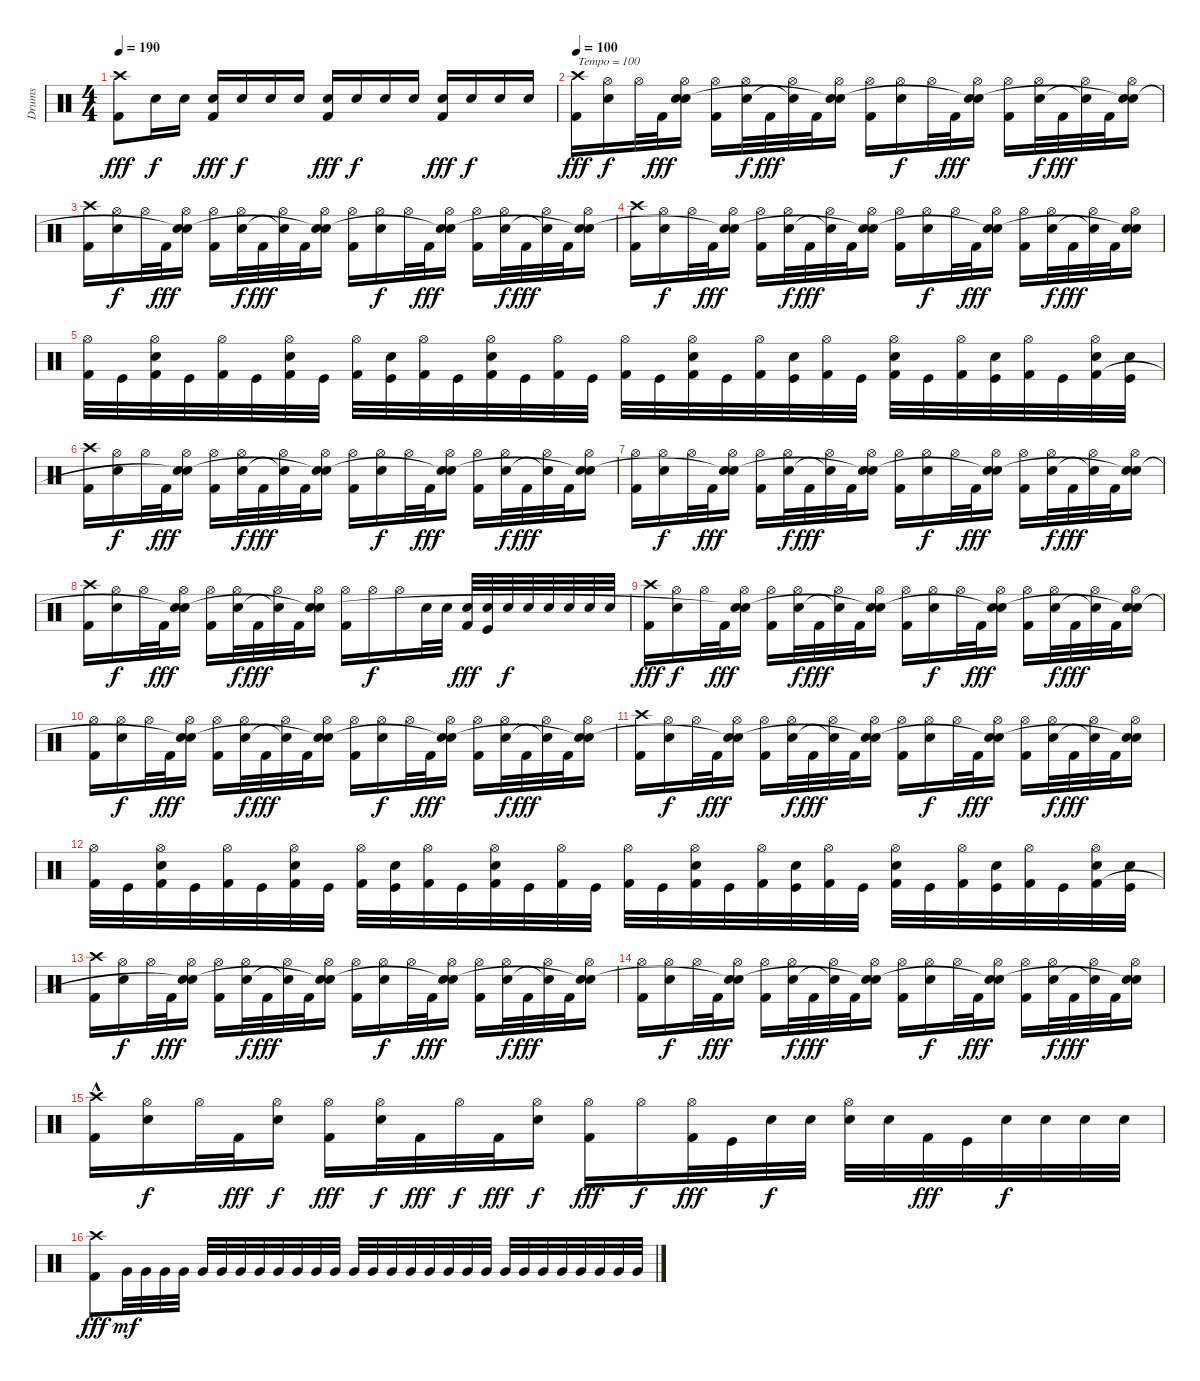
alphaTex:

\track ("Drums" "Drums") {instrument percussion}
\staff {score}
\articulation defaults
\ts (4 4)
\tempo 190
\clef neutral
\ks c
("Crash high (hit)" "Kick (hit) 2").8{dy fff} "Electric Snare (hit)".16{dy f} "Electric Snare (hit)".16 ("Electric Snare (hit)" "Kick (hit) 2").16{dy fff} "Electric Snare (hit)".16{dy f} "Electric Snare (hit)".16 "Electric Snare (hit)".16 ("Electric Snare (hit)" "Kick (hit) 2").16{dy fff} "Electric Snare (hit)".16{dy f} "Electric Snare (hit)".16 "Electric Snare (hit)".16 ("Electric Snare (hit)" "Kick (hit) 2").16{dy fff} "Electric Snare (hit)".16{dy f} "Electric Snare (hit)".16 "Electric Snare (hit)".16 |
\tempo 100
("Crash high (hit)" "Kick (hit) 2").16{txt "Tempo = 100" dy fff} ("Hi-Hat (open)" "Electric Snare (hit)").16{dy f} "Hi-Hat (open)".32 "Kick (hit) 2".32{dy fff} ("Hi-Hat (open)" "Electric Snare (hit)" "Snare (hit)"{t}).16 ("Hi-Hat (open)" "Kick (hit) 2").16 ("Hi-Hat (open)" "Electric Snare (hit)").32{dy f} "Kick (hit) 2".32{dy fff} ("Hi-Hat (open)" "Snare (hit)"{t}).32 "Kick (hit) 2".32 ("Hi-Hat (open)" "Electric Snare (hit)" "Snare (hit)"{t}).16 ("Hi-Hat (open)" "Kick (hit) 2").16 ("Hi-Hat (open)" "Electric Snare (hit)").16{dy f} "Hi-Hat (open)".32 "Kick (hit) 2".32{dy fff} ("Hi-Hat (open)" "Electric Snare (hit)" "Snare (hit)"{t}).16 ("Hi-Hat (open)" "Kick (hit) 2").16 ("Hi-Hat (open)" "Electric Snare (hit)").32{dy f} "Kick (hit) 2".32{dy fff} ("Hi-Hat (open)" "Snare (hit)"{t}).32 "Kick (hit) 2".32 ("Hi-Hat (open)" "Electric Snare (hit)" "Snare (hit)"{t}).16 |
("Crash high (hit)" "Kick (hit) 2").16 ("Hi-Hat (open)" "Electric Snare (hit)").16{dy f} "Hi-Hat (open)".32 "Kick (hit) 2".32{dy fff} ("Hi-Hat (open)" "Electric Snare (hit)" "Snare (hit)"{t}).16 ("Hi-Hat (open)" "Kick (hit) 2").16 ("Hi-Hat (open)" "Electric Snare (hit)").32{dy f} "Kick (hit) 2".32{dy fff} ("Hi-Hat (open)" "Snare (hit)"{t}).32 "Kick (hit) 2".32 ("Hi-Hat (open)" "Electric Snare (hit)" "Snare (hit)"{t}).16 ("Hi-Hat (open)" "Kick (hit) 2").16 ("Hi-Hat (open)" "Electric Snare (hit)").16{dy f} "Hi-Hat (open)".32 "Kick (hit) 2".32{dy fff} ("Hi-Hat (open)" "Electric Snare (hit)" "Snare (hit)"{t}).16 ("Hi-Hat (open)" "Kick (hit) 2").16 ("Hi-Hat (open)" "Electric Snare (hit)").32{dy f} "Kick (hit) 2".32{dy fff} ("Hi-Hat (open)" "Snare (hit)"{t}).32 "Kick (hit) 2".32 ("Hi-Hat (open)" "Electric Snare (hit)" "Snare (hit)"{t}).16 |
("Crash high (hit)" "Kick (hit) 2").16 ("Hi-Hat (open)" "Electric Snare (hit)").16{dy f} "Hi-Hat (open)".32 "Kick (hit) 2".32{dy fff} ("Hi-Hat (open)" "Electric Snare (hit)" "Snare (hit)"{t}).16 ("Hi-Hat (open)" "Kick (hit) 2").16 ("Hi-Hat (open)" "Electric Snare (hit)").32{dy f} "Kick (hit) 2".32{dy fff} ("Hi-Hat (open)" "Snare (hit)"{t}).32 "Kick (hit) 2".32 ("Hi-Hat (open)" "Electric Snare (hit)" "Snare (hit)"{t}).16 ("Hi-Hat (open)" "Kick (hit) 2").16 ("Hi-Hat (open)" "Electric Snare (hit)").16{dy f} "Hi-Hat (open)".32 "Kick (hit) 2".32{dy fff} ("Hi-Hat (open)" "Electric Snare (hit)" "Snare (hit)"{t}).16 ("Hi-Hat (open)" "Kick (hit) 2").16 ("Hi-Hat (open)" "Electric Snare (hit)").32{dy f} "Kick (hit) 2".32{dy fff} ("Hi-Hat (open)" "Snare (hit)"{t}).32 "Kick (hit) 2".32 ("Hi-Hat (open)" "Electric Snare (hit)" "Snare (hit)"{t}).16 |
("Hi-Hat (open)" "Kick (hit) 2").32 "Kick (hit)".32 ("Hi-Hat (open)" "Electric Snare (hit)" "Kick (hit) 2").32 "Kick (hit)".32 ("Hi-Hat (open)" "Kick (hit) 2").32 "Kick (hit)".32 ("Hi-Hat (open)" "Electric Snare (hit)" "Kick (hit) 2").32 "Kick (hit)".32 ("Hi-Hat (open)" "Kick (hit) 2").32 ("Electric Snare (hit)" "Kick (hit)").32 ("Hi-Hat (open)" "Kick (hit) 2").32 "Kick (hit)".32 ("Hi-Hat (open)" "Electric Snare (hit)" "Kick (hit) 2").32 "Kick (hit)".32 ("Hi-Hat (open)" "Kick (hit) 2").32 "Kick (hit)".32 ("Hi-Hat (open)" "Kick (hit) 2").32 "Kick (hit)".32 ("Hi-Hat (open)" "Electric Snare (hit)" "Kick (hit) 2").32 "Kick (hit)".32 ("Hi-Hat (open)" "Kick (hit) 2").32 ("Electric Snare (hit)" "Kick (hit)").32 ("Hi-Hat (open)" "Kick (hit) 2").32 "Kick (hit)".32 ("Hi-Hat (open)" "Electric Snare (hit)" "Kick (hit) 2").32 "Kick (hit)".32 ("Hi-Hat (open)" "Kick (hit) 2").32 ("Electric Snare (hit)" "Kick (hit)").32 ("Hi-Hat (open)" "Kick (hit) 2").32 "Kick (hit)".32 ("Hi-Hat (open)" "Electric Snare (hit)" "Kick (hit) 2").32 ("Electric Snare (hit)" "Kick (hit)").32 |
("Crash high (hit)" "Kick (hit) 2").16 ("Hi-Hat (open)" "Electric Snare (hit)").16{dy f} "Hi-Hat (open)".32 "Kick (hit) 2".32{dy fff} ("Hi-Hat (open)" "Electric Snare (hit)" "Snare (hit)"{t}).16 ("Hi-Hat (open)" "Kick (hit) 2").16 ("Hi-Hat (open)" "Electric Snare (hit)").32{dy f} "Kick (hit) 2".32{dy fff} ("Hi-Hat (open)" "Snare (hit)"{t}).32 "Kick (hit) 2".32 ("Hi-Hat (open)" "Electric Snare (hit)" "Snare (hit)"{t}).16 ("Hi-Hat (open)" "Kick (hit) 2").16 ("Hi-Hat (open)" "Electric Snare (hit)").16{dy f} "Hi-Hat (open)".32 "Kick (hit) 2".32{dy fff} ("Hi-Hat (open)" "Electric Snare (hit)" "Snare (hit)"{t}).16 ("Hi-Hat (open)" "Kick (hit) 2").16 ("Hi-Hat (open)" "Electric Snare (hit)").32{dy f} "Kick (hit) 2".32{dy fff} ("Hi-Hat (open)" "Snare (hit)"{t}).32 "Kick (hit) 2".32 ("Hi-Hat (open)" "Electric Snare (hit)" "Snare (hit)"{t}).16 |
("Hi-Hat (open)" "Kick (hit) 2").16 ("Hi-Hat (open)" "Electric Snare (hit)").16{dy f} "Hi-Hat (open)".32 "Kick (hit) 2".32{dy fff} ("Hi-Hat (open)" "Electric Snare (hit)" "Snare (hit)"{t}).16 ("Hi-Hat (open)" "Kick (hit) 2").16 ("Hi-Hat (open)" "Electric Snare (hit)").32{dy f} "Kick (hit) 2".32{dy fff} ("Hi-Hat (open)" "Snare (hit)"{t}).32 "Kick (hit) 2".32 ("Hi-Hat (open)" "Electric Snare (hit)" "Snare (hit)"{t}).16 ("Hi-Hat (open)" "Kick (hit) 2").16 ("Hi-Hat (open)" "Electric Snare (hit)").16{dy f} "Hi-Hat (open)".32 "Kick (hit) 2".32{dy fff} ("Hi-Hat (open)" "Electric Snare (hit)" "Snare (hit)"{t}).16 ("Hi-Hat (open)" "Kick (hit) 2").16 ("Hi-Hat (open)" "Electric Snare (hit)").32{dy f} "Kick (hit) 2".32{dy fff} ("Hi-Hat (open)" "Snare (hit)"{t}).32 "Kick (hit) 2".32 ("Hi-Hat (open)" "Electric Snare (hit)" "Snare (hit)"{t}).16 |
("Crash high (hit)" "Kick (hit) 2").16 ("Hi-Hat (open)" "Electric Snare (hit)").16{dy f} "Hi-Hat (open)".32 "Kick (hit) 2".32{dy fff} ("Hi-Hat (open)" "Electric Snare (hit)" "Snare (hit)"{t}).16 ("Hi-Hat (open)" "Kick (hit) 2").16 ("Hi-Hat (open)" "Electric Snare (hit)").32{dy f} "Kick (hit) 2".32{dy fff} ("Hi-Hat (open)" "Snare (hit)"{t}).32 "Kick (hit) 2".32 ("Hi-Hat (open)" "Electric Snare (hit)" "Snare (hit)"{t}).16 ("Hi-Hat (open)" "Kick (hit) 2").16 "Hi-Hat (open)".16{dy f} "Hi-Hat (open)".16 "Electric Snare (hit)".32 "Electric Snare (hit)".32 ("Electric Snare (hit)" "Kick (hit) 2").32{dy fff} ("Electric Snare (hit)" "Kick (hit)").32 "Electric Snare (hit)".32{dy f} "Electric Snare (hit)".32 "Electric Snare (hit)".32 "Electric Snare (hit)".32 "Electric Snare (hit)".32 "Electric Snare (hit)".32 |
("Crash high (hit)" "Kick (hit) 2").16{dy fff} ("Hi-Hat (open)" "Electric Snare (hit)").16{dy f} "Hi-Hat (open)".32 "Kick (hit) 2".32{dy fff} ("Hi-Hat (open)" "Electric Snare (hit)" "Snare (hit)"{t}).16 ("Hi-Hat (open)" "Kick (hit) 2").16 ("Hi-Hat (open)" "Electric Snare (hit)").32{dy f} "Kick (hit) 2".32{dy fff} ("Hi-Hat (open)" "Snare (hit)"{t}).32 "Kick (hit) 2".32 ("Hi-Hat (open)" "Electric Snare (hit)" "Snare (hit)"{t}).16 ("Hi-Hat (open)" "Kick (hit) 2").16 ("Hi-Hat (open)" "Electric Snare (hit)").16{dy f} "Hi-Hat (open)".32 "Kick (hit) 2".32{dy fff} ("Hi-Hat (open)" "Electric Snare (hit)" "Snare (hit)"{t}).16 ("Hi-Hat (open)" "Kick (hit) 2").16 ("Hi-Hat (open)" "Electric Snare (hit)").32{dy f} "Kick (hit) 2".32{dy fff} ("Hi-Hat (open)" "Snare (hit)"{t}).32 "Kick (hit) 2".32 ("Hi-Hat (open)" "Electric Snare (hit)" "Snare (hit)"{t}).16 |
("Hi-Hat (open)" "Kick (hit) 2").16 ("Hi-Hat (open)" "Electric Snare (hit)").16{dy f} "Hi-Hat (open)".32 "Kick (hit) 2".32{dy fff} ("Hi-Hat (open)" "Electric Snare (hit)" "Snare (hit)"{t}).16 ("Hi-Hat (open)" "Kick (hit) 2").16 ("Hi-Hat (open)" "Electric Snare (hit)").32{dy f} "Kick (hit) 2".32{dy fff} ("Hi-Hat (open)" "Snare (hit)"{t}).32 "Kick (hit) 2".32 ("Hi-Hat (open)" "Electric Snare (hit)" "Snare (hit)"{t}).16 ("Hi-Hat (open)" "Kick (hit) 2").16 ("Hi-Hat (open)" "Electric Snare (hit)").16{dy f} "Hi-Hat (open)".32 "Kick (hit) 2".32{dy fff} ("Hi-Hat (open)" "Electric Snare (hit)" "Snare (hit)"{t}).16 ("Hi-Hat (open)" "Kick (hit) 2").16 ("Hi-Hat (open)" "Electric Snare (hit)").32{dy f} "Kick (hit) 2".32{dy fff} ("Hi-Hat (open)" "Snare (hit)"{t}).32 "Kick (hit) 2".32 ("Hi-Hat (open)" "Electric Snare (hit)" "Snare (hit)"{t}).16 |
("Crash high (hit)" "Kick (hit) 2").16 ("Hi-Hat (open)" "Electric Snare (hit)").16{dy f} "Hi-Hat (open)".32 "Kick (hit) 2".32{dy fff} ("Hi-Hat (open)" "Electric Snare (hit)" "Snare (hit)"{t}).16 ("Hi-Hat (open)" "Kick (hit) 2").16 ("Hi-Hat (open)" "Electric Snare (hit)").32{dy f} "Kick (hit) 2".32{dy fff} ("Hi-Hat (open)" "Snare (hit)"{t}).32 "Kick (hit) 2".32 ("Hi-Hat (open)" "Electric Snare (hit)" "Snare (hit)"{t}).16 ("Hi-Hat (open)" "Kick (hit) 2").16 ("Hi-Hat (open)" "Electric Snare (hit)").16{dy f} "Hi-Hat (open)".32 "Kick (hit) 2".32{dy fff} ("Hi-Hat (open)" "Electric Snare (hit)" "Snare (hit)"{t}).16 ("Hi-Hat (open)" "Kick (hit) 2").16 ("Hi-Hat (open)" "Electric Snare (hit)").32{dy f} "Kick (hit) 2".32{dy fff} ("Hi-Hat (open)" "Snare (hit)"{t}).32 "Kick (hit) 2".32 ("Hi-Hat (open)" "Electric Snare (hit)" "Snare (hit)"{t}).16 |
("Hi-Hat (open)" "Kick (hit) 2").32 "Kick (hit)".32 ("Hi-Hat (open)" "Electric Snare (hit)" "Kick (hit) 2").32 "Kick (hit)".32 ("Hi-Hat (open)" "Kick (hit) 2").32 "Kick (hit)".32 ("Hi-Hat (open)" "Electric Snare (hit)" "Kick (hit) 2").32 "Kick (hit)".32 ("Hi-Hat (open)" "Kick (hit) 2").32 ("Electric Snare (hit)" "Kick (hit)").32 ("Hi-Hat (open)" "Kick (hit) 2").32 "Kick (hit)".32 ("Hi-Hat (open)" "Electric Snare (hit)" "Kick (hit) 2").32 "Kick (hit)".32 ("Hi-Hat (open)" "Kick (hit) 2").32 "Kick (hit)".32 ("Hi-Hat (open)" "Kick (hit) 2").32 "Kick (hit)".32 ("Hi-Hat (open)" "Electric Snare (hit)" "Kick (hit) 2").32 "Kick (hit)".32 ("Hi-Hat (open)" "Kick (hit) 2").32 ("Electric Snare (hit)" "Kick (hit)").32 ("Hi-Hat (open)" "Kick (hit) 2").32 "Kick (hit)".32 ("Hi-Hat (open)" "Electric Snare (hit)" "Kick (hit) 2").32 "Kick (hit)".32 ("Hi-Hat (open)" "Kick (hit) 2").32 ("Electric Snare (hit)" "Kick (hit)").32 ("Hi-Hat (open)" "Kick (hit) 2").32 "Kick (hit)".32 ("Hi-Hat (open)" "Electric Snare (hit)" "Kick (hit) 2").32 ("Electric Snare (hit)" "Kick (hit)").32 |
("Crash high (hit)" "Kick (hit) 2").16 ("Hi-Hat (open)" "Electric Snare (hit)").16{dy f} "Hi-Hat (open)".32 "Kick (hit) 2".32{dy fff} ("Hi-Hat (open)" "Electric Snare (hit)" "Snare (hit)"{t}).16 ("Hi-Hat (open)" "Kick (hit) 2").16 ("Hi-Hat (open)" "Electric Snare (hit)").32{dy f} "Kick (hit) 2".32{dy fff} ("Hi-Hat (open)" "Snare (hit)"{t}).32 "Kick (hit) 2".32 ("Hi-Hat (open)" "Electric Snare (hit)" "Snare (hit)"{t}).16 ("Hi-Hat (open)" "Kick (hit) 2").16 ("Hi-Hat (open)" "Electric Snare (hit)").16{dy f} "Hi-Hat (open)".32 "Kick (hit) 2".32{dy fff} ("Hi-Hat (open)" "Electric Snare (hit)" "Snare (hit)"{t}).16 ("Hi-Hat (open)" "Kick (hit) 2").16 ("Hi-Hat (open)" "Electric Snare (hit)").32{dy f} "Kick (hit) 2".32{dy fff} ("Hi-Hat (open)" "Snare (hit)"{t}).32 "Kick (hit) 2".32 ("Hi-Hat (open)" "Electric Snare (hit)" "Snare (hit)"{t}).16 |
("Hi-Hat (open)" "Kick (hit) 2").16 ("Hi-Hat (open)" "Electric Snare (hit)").16{dy f} "Hi-Hat (open)".32 "Kick (hit) 2".32{dy fff} ("Hi-Hat (open)" "Electric Snare (hit)" "Snare (hit)"{t}).16 ("Hi-Hat (open)" "Kick (hit) 2").16 ("Hi-Hat (open)" "Electric Snare (hit)").32{dy f} "Kick (hit) 2".32{dy fff} ("Hi-Hat (open)" "Snare (hit)"{t}).32 "Kick (hit) 2".32 ("Hi-Hat (open)" "Electric Snare (hit)" "Snare (hit)"{t}).16 ("Hi-Hat (open)" "Kick (hit) 2").16 ("Hi-Hat (open)" "Electric Snare (hit)").16{dy f} "Hi-Hat (open)".32 "Kick (hit) 2".32{dy fff} ("Hi-Hat (open)" "Electric Snare (hit)" "Snare (hit)"{t}).16 ("Hi-Hat (open)" "Kick (hit) 2").16 ("Hi-Hat (open)" "Electric Snare (hit)").32{dy f} "Kick (hit) 2".32{dy fff} ("Hi-Hat (open)" "Snare (hit)"{t}).32 "Kick (hit) 2".32 ("Hi-Hat (open)" "Electric Snare (hit)" "Snare (hit)"{t}).16 |
("Crash high (hit)"{hac} "Kick (hit) 2").16 ("Hi-Hat (open)" "Electric Snare (hit)").16{dy f} "Hi-Hat (open)".32 "Kick (hit) 2".32{dy fff} ("Hi-Hat (open)" "Electric Snare (hit)").16{dy f} ("Hi-Hat (open)" "Kick (hit) 2").16{dy fff} ("Hi-Hat (open)" "Electric Snare (hit)").32{dy f} "Kick (hit) 2".32{dy fff} "Hi-Hat (open)".32{dy f} "Kick (hit) 2".32{dy fff} ("Hi-Hat (open)" "Electric Snare (hit)").16{dy f} ("Hi-Hat (open)" "Kick (hit) 2").16{dy fff} "Hi-Hat (open)".16{dy f} ("Hi-Hat (open)" "Kick (hit) 2").32{dy fff} "Kick (hit)".32 "Electric Snare (hit)".32{dy f} "Electric Snare (hit)".32 ("Hi-Hat (open)" "Electric Snare (hit)").32 "Electric Snare (hit)".32 "Kick (hit) 2".32{dy fff} "Kick (hit)".32 "Electric Snare (hit)".32{dy f} "Electric Snare (hit)".32 "Electric Snare (hit)".32 "Electric Snare (hit)".32 |
("Crash high (hit)" "Kick (hit) 2").8{dy fff} "Very Low Tom (hit)".32{dy mf} "Very Low Tom (hit)".32 "Very Low Tom (hit)".32 "Very Low Tom (hit)".32 "Very Low Tom (hit)".32 "Very Low Tom (hit)".32 "Very Low Tom (hit)".32 "Very Low Tom (hit)".32 "Very Low Tom (hit)".32 "Very Low Tom (hit)".32 "Very Low Tom (hit)".32 "Very Low Tom (hit)".32 "Very Low Tom (hit)".32 "Very Low Tom (hit)".32 "Very Low Tom (hit)".32 "Very Low Tom (hit)".32 "Very Low Tom (hit)".32 "Very Low Tom (hit)".32 "Very Low Tom (hit)".32 "Very Low Tom (hit)".32 "Very Low Tom (hit)".32 "Very Low Tom (hit)".32 "Very Low Tom (hit)".32 "Very Low Tom (hit)".32 "Very Low Tom (hit)".32 "Very Low Tom (hit)".32 "Very Low Tom (hit)".32 "Very Low Tom (hit)".32
